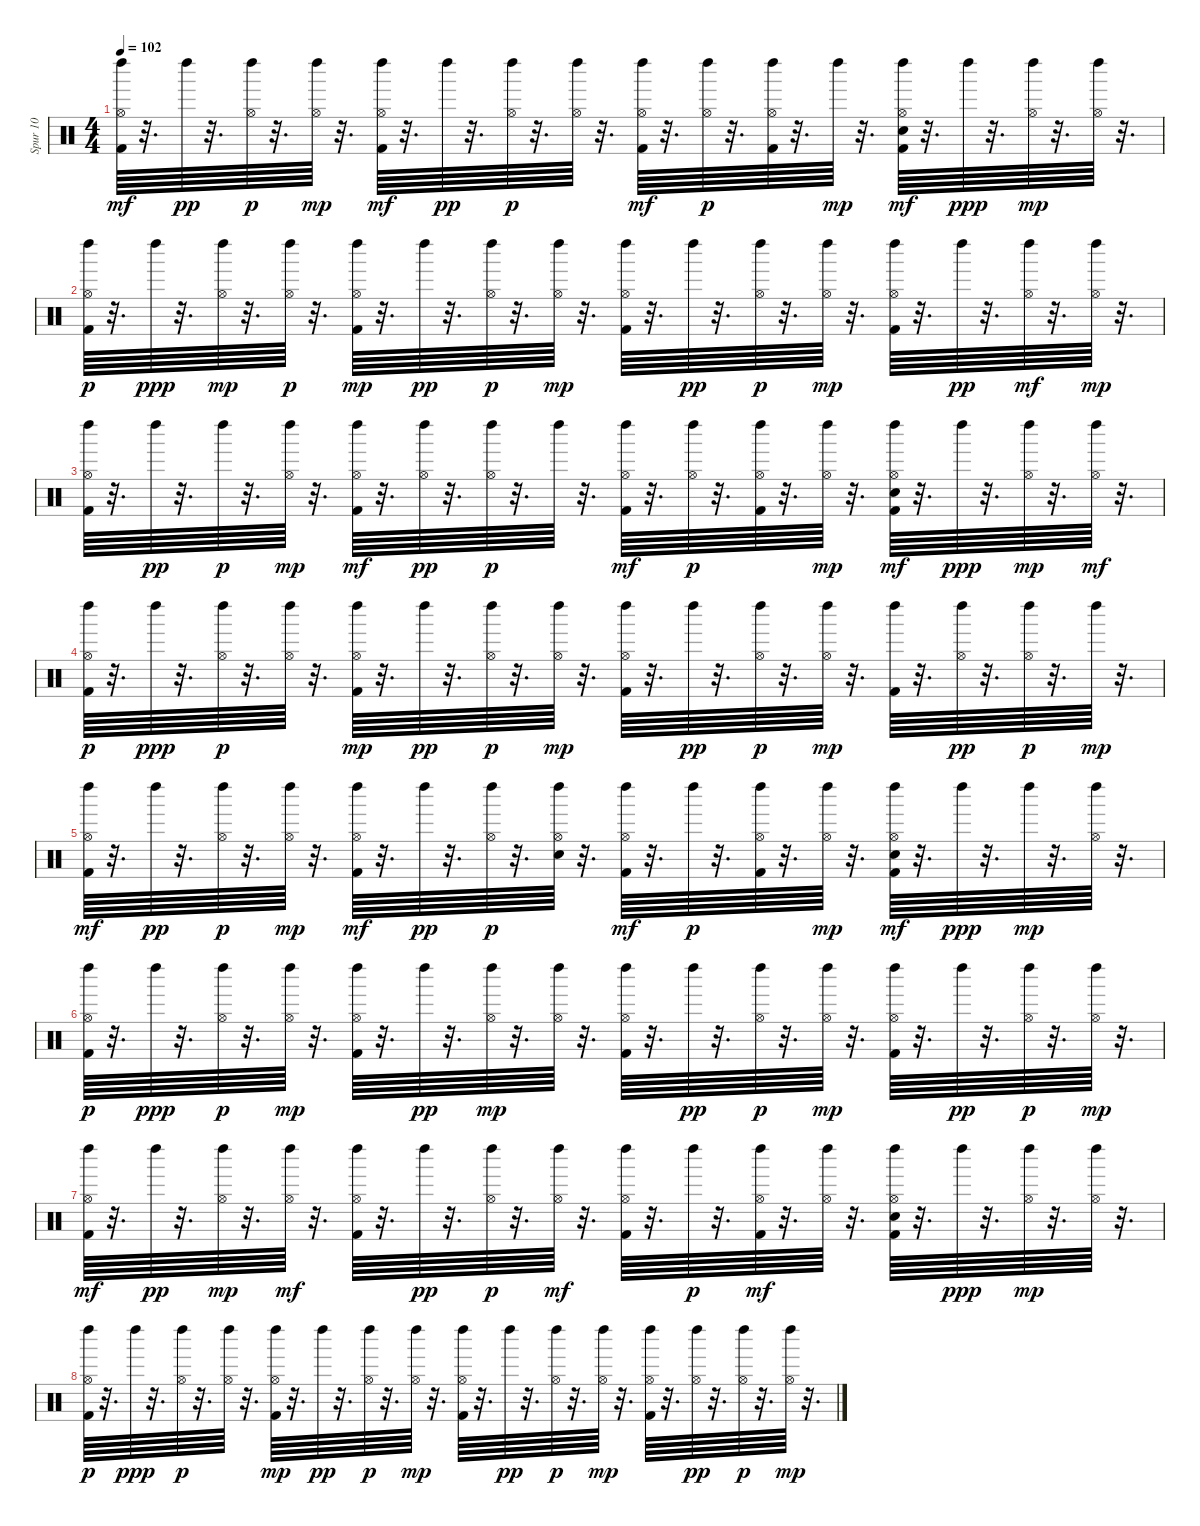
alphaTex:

\track ("Spur 10" "Spur 10") {instrument percussion}
\staff {score}
\articulation defaults
\ts (4 4)
\tempo 102
\clef neutral
\ks c
("Hi-Hat (open)" "Left Maraca (hit)" "Kick (hit) 2").64{dy mf} r.32{d} "Left Maraca (hit)".64{dy pp} r.32{d} ("Hi-Hat (open)" "Left Maraca (hit)").64{dy p} r.32{d} ("Hi-Hat (open)" "Left Maraca (hit)").64{dy mp} r.32{d} ("Hi-Hat (open)" "Kick (hit) 2" "Left Maraca (hit)").64{dy mf} r.32{d} "Left Maraca (hit)".64{dy pp} r.32{d} ("Hi-Hat (open)" "Left Maraca (hit)").64{dy p} r.32{d} ("Hi-Hat (open)" "Left Maraca (hit)").64 r.32{d} ("Hi-Hat (open)" "Left Maraca (hit)" "Kick (hit) 2").64{dy mf} r.32{d} ("Hi-Hat (open)" "Left Maraca (hit)").64{dy p} r.32{d} ("Hi-Hat (open)" "Left Maraca (hit)" "Kick (hit) 2").64 r.32{d} "Left Maraca (hit)".64{dy mp} r.32{d} ("Hi-Hat (open)" "Left Maraca (hit)" "Kick (hit) 2" "Snare (hit) 2").64{dy mf} r.32{d} "Left Maraca (hit)".64{dy ppp} r.32{d} ("Hi-Hat (open)" "Left Maraca (hit)").64{dy mp} r.32{d} ("Left Maraca (hit)" "Hi-Hat (open)").64 r.32{d} |
("Hi-Hat (open)" "Left Maraca (hit)" "Kick (hit) 2").64{dy p} r.32{d} "Left Maraca (hit)".64{dy ppp} r.32{d} ("Left Maraca (hit)" "Hi-Hat (open)").64{dy mp} r.32{d} ("Hi-Hat (open)" "Left Maraca (hit)").64{dy p} r.32{d} ("Hi-Hat (open)" "Left Maraca (hit)" "Kick (hit) 2").64{dy mp} r.32{d} "Left Maraca (hit)".64{dy pp} r.32{d} ("Hi-Hat (open)" "Left Maraca (hit)").64{dy p} r.32{d} ("Hi-Hat (open)" "Left Maraca (hit)").64{dy mp} r.32{d} ("Kick (hit) 2" "Hi-Hat (open)" "Left Maraca (hit)").64 r.32{d} "Left Maraca (hit)".64{dy pp} r.32{d} ("Hi-Hat (open)" "Left Maraca (hit)").64{dy p} r.32{d} ("Hi-Hat (open)" "Left Maraca (hit)").64{dy mp} r.32{d} ("Kick (hit) 2" "Left Maraca (hit)" "Hi-Hat (open)").64 r.32{d} "Left Maraca (hit)".64{dy pp} r.32{d} ("Left Maraca (hit)" "Hi-Hat (open)").64{dy mf} r.32{d} ("Left Maraca (hit)" "Hi-Hat (open)").64{dy mp} r.32{d} |
("Left Maraca (hit)" "Kick (hit) 2" "Hi-Hat (open)").64 r.32{d} "Left Maraca (hit)".64{dy pp} r.32{d} "Left Maraca (hit)".64{dy p} r.32{d} ("Hi-Hat (open)" "Left Maraca (hit)").64{dy mp} r.32{d} ("Hi-Hat (open)" "Kick (hit) 2" "Left Maraca (hit)").64{dy mf} r.32{d} ("Hi-Hat (open)" "Left Maraca (hit)").64{dy pp} r.32{d} ("Hi-Hat (open)" "Left Maraca (hit)").64{dy p} r.32{d} "Left Maraca (hit)".64 r.32{d} ("Kick (hit) 2" "Hi-Hat (open)" "Left Maraca (hit)").64{dy mf} r.32{d} ("Hi-Hat (open)" "Left Maraca (hit)").64{dy p} r.32{d} ("Hi-Hat (open)" "Left Maraca (hit)" "Kick (hit) 2").64 r.32{d} ("Hi-Hat (open)" "Left Maraca (hit)").64{dy mp} r.32{d} ("Hi-Hat (open)" "Left Maraca (hit)" "Kick (hit) 2" "Snare (hit) 2").64{dy mf} r.32{d} "Left Maraca (hit)".64{dy ppp} r.32{d} ("Hi-Hat (open)" "Left Maraca (hit)").64{dy mp} r.32{d} ("Hi-Hat (open)" "Left Maraca (hit)").64{dy mf} r.32{d} |
("Hi-Hat (open)" "Left Maraca (hit)" "Kick (hit) 2").64{dy p} r.32{d} "Left Maraca (hit)".64{dy ppp} r.32{d} ("Hi-Hat (open)" "Left Maraca (hit)").64{dy p} r.32{d} ("Hi-Hat (open)" "Left Maraca (hit)").64 r.32{d} ("Hi-Hat (open)" "Left Maraca (hit)" "Kick (hit) 2").64{dy mp} r.32{d} "Left Maraca (hit)".64{dy pp} r.32{d} ("Hi-Hat (open)" "Left Maraca (hit)").64{dy p} r.32{d} ("Hi-Hat (open)" "Left Maraca (hit)").64{dy mp} r.32{d} ("Hi-Hat (open)" "Kick (hit) 2" "Left Maraca (hit)").64 r.32{d} "Left Maraca (hit)".64{dy pp} r.32{d} ("Hi-Hat (open)" "Left Maraca (hit)").64{dy p} r.32{d} ("Hi-Hat (open)" "Left Maraca (hit)").64{dy mp} r.32{d} ("Kick (hit) 2" "Left Maraca (hit)").64 r.32{d} ("Hi-Hat (open)" "Left Maraca (hit)").64{dy pp} r.32{d} ("Hi-Hat (open)" "Left Maraca (hit)").64{dy p} r.32{d} "Left Maraca (hit)".64{dy mp} r.32{d} |
("Kick (hit) 2" "Hi-Hat (open)" "Left Maraca (hit)").64{dy mf} r.32{d} "Left Maraca (hit)".64{dy pp} r.32{d} ("Hi-Hat (open)" "Left Maraca (hit)").64{dy p} r.32{d} ("Hi-Hat (open)" "Left Maraca (hit)").64{dy mp} r.32{d} ("Hi-Hat (open)" "Left Maraca (hit)" "Kick (hit) 2").64{dy mf} r.32{d} "Left Maraca (hit)".64{dy pp} r.32{d} ("Hi-Hat (open)" "Left Maraca (hit)").64{dy p} r.32{d} ("Snare (hit) 2" "Hi-Hat (open)" "Left Maraca (hit)").64 r.32{d} ("Kick (hit) 2" "Left Maraca (hit)" "Hi-Hat (open)").64{dy mf} r.32{d} "Left Maraca (hit)".64{dy p} r.32{d} ("Kick (hit) 2" "Hi-Hat (open)" "Left Maraca (hit)").64 r.32{d} ("Hi-Hat (open)" "Left Maraca (hit)").64{dy mp} r.32{d} ("Left Maraca (hit)" "Kick (hit) 2" "Snare (hit) 2" "Hi-Hat (open)").64{dy mf} r.32{d} "Left Maraca (hit)".64{dy ppp} r.32{d} "Left Maraca (hit)".64{dy mp} r.32{d} ("Left Maraca (hit)" "Hi-Hat (open)").64 r.32{d} |
("Left Maraca (hit)" "Kick (hit) 2" "Hi-Hat (open)").64{dy p} r.32{d} "Left Maraca (hit)".64{dy ppp} r.32{d} ("Hi-Hat (open)" "Left Maraca (hit)").64{dy p} r.32{d} ("Left Maraca (hit)" "Hi-Hat (open)").64{dy mp} r.32{d} ("Kick (hit) 2" "Left Maraca (hit)" "Hi-Hat (open)").64 r.32{d} "Left Maraca (hit)".64{dy pp} r.32{d} ("Left Maraca (hit)" "Hi-Hat (open)").64{dy mp} r.32{d} ("Left Maraca (hit)" "Hi-Hat (open)").64 r.32{d} ("Kick (hit) 2" "Hi-Hat (open)" "Left Maraca (hit)").64 r.32{d} "Left Maraca (hit)".64{dy pp} r.32{d} ("Hi-Hat (open)" "Left Maraca (hit)").64{dy p} r.32{d} ("Left Maraca (hit)" "Hi-Hat (open)").64{dy mp} r.32{d} ("Kick (hit) 2" "Left Maraca (hit)" "Hi-Hat (open)").64 r.32{d} "Left Maraca (hit)".64{dy pp} r.32{d} ("Hi-Hat (open)" "Left Maraca (hit)").64{dy p} r.32{d} ("Hi-Hat (open)" "Left Maraca (hit)").64{dy mp} r.32{d} |
("Kick (hit) 2" "Left Maraca (hit)" "Hi-Hat (open)").64{dy mf} r.32{d} "Left Maraca (hit)".64{dy pp} r.32{d} ("Left Maraca (hit)" "Hi-Hat (open)").64{dy mp} r.32{d} ("Left Maraca (hit)" "Hi-Hat (open)").64{dy mf} r.32{d} ("Kick (hit) 2" "Left Maraca (hit)" "Hi-Hat (open)").64 r.32{d} "Left Maraca (hit)".64{dy pp} r.32{d} ("Left Maraca (hit)" "Hi-Hat (open)").64{dy p} r.32{d} ("Left Maraca (hit)" "Hi-Hat (open)").64{dy mf} r.32{d} ("Kick (hit) 2" "Left Maraca (hit)" "Hi-Hat (open)").64 r.32{d} "Left Maraca (hit)".64{dy p} r.32{d} ("Kick (hit) 2" "Left Maraca (hit)" "Hi-Hat (open)").64{dy mf} r.32{d} ("Left Maraca (hit)" "Hi-Hat (open)").64 r.32{d} ("Left Maraca (hit)" "Kick (hit) 2" "Snare (hit) 2" "Hi-Hat (open)").64 r.32{d} "Left Maraca (hit)".64{dy ppp} r.32{d} ("Hi-Hat (open)" "Left Maraca (hit)").64{dy mp} r.32{d} ("Left Maraca (hit)" "Hi-Hat (open)").64 r.32{d} |
("Left Maraca (hit)" "Kick (hit) 2" "Hi-Hat (open)").64{dy p} r.32{d} "Left Maraca (hit)".64{dy ppp} r.32{d} ("Hi-Hat (open)" "Left Maraca (hit)").64{dy p} r.32{d} ("Left Maraca (hit)" "Hi-Hat (open)").64 r.32{d} ("Kick (hit) 2" "Hi-Hat (open)" "Left Maraca (hit)").64{dy mp} r.32{d} "Left Maraca (hit)".64{dy pp} r.32{d} ("Hi-Hat (open)" "Left Maraca (hit)").64{dy p} r.32{d} ("Hi-Hat (open)" "Left Maraca (hit)").64{dy mp} r.32{d} ("Kick (hit) 2" "Hi-Hat (open)" "Left Maraca (hit)").64 r.32{d} "Left Maraca (hit)".64{dy pp} r.32{d} ("Hi-Hat (open)" "Left Maraca (hit)").64{dy p} r.32{d} ("Hi-Hat (open)" "Left Maraca (hit)").64{dy mp} r.32{d} ("Kick (hit) 2" "Hi-Hat (open)" "Left Maraca (hit)").64 r.32{d} ("Hi-Hat (open)" "Left Maraca (hit)").64{dy pp} r.32{d} ("Hi-Hat (open)" "Left Maraca (hit)").64{dy p} r.32{d} ("Hi-Hat (open)" "Left Maraca (hit)").64{dy mp} r.32{d}
